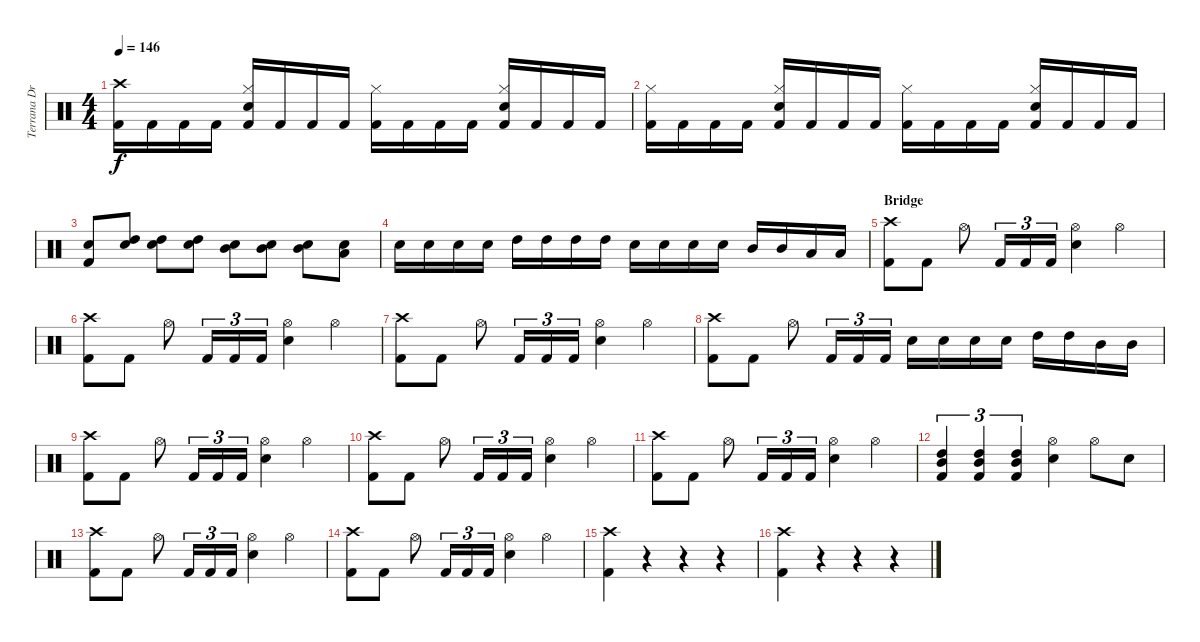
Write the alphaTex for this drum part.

\track ("Terrana Drums" "Terrana Dr") {instrument percussion}
\staff {score}
\articulation defaults
\ts (4 4)
\tempo 146
\clef neutral
\ks c
("Crash high (hit)" "Kick (hit) 2").16{dy f} "Kick (hit) 2".16 "Kick (hit) 2".16 "Kick (hit) 2".16 ("Hi-Hat (closed)" "Electric Snare (hit)" "Kick (hit) 2").16 "Kick (hit) 2".16 "Kick (hit) 2".16 "Kick (hit) 2".16 ("Hi-Hat (closed)" "Kick (hit) 2").16 "Kick (hit) 2".16 "Kick (hit) 2".16 "Kick (hit) 2".16 ("Hi-Hat (closed)" "Electric Snare (hit)" "Kick (hit) 2").16 "Kick (hit) 2".16 "Kick (hit) 2".16 "Kick (hit) 2".16 |
("Hi-Hat (closed)" "Kick (hit) 2").16 "Kick (hit) 2".16 "Kick (hit) 2".16 "Kick (hit) 2".16 ("Hi-Hat (closed)" "Electric Snare (hit)" "Kick (hit) 2").16 "Kick (hit) 2".16 "Kick (hit) 2".16 "Kick (hit) 2".16 ("Hi-Hat (closed)" "Kick (hit) 2").16 "Kick (hit) 2".16 "Kick (hit) 2".16 "Kick (hit) 2".16 ("Hi-Hat (closed)" "Electric Snare (hit)" "Kick (hit) 2").16 "Kick (hit) 2".16 "Kick (hit) 2".16 "Kick (hit) 2".16 |
("Electric Snare (hit)" "Kick (hit) 2").8 ("High Tom (hit)" "Electric Snare (hit)").8 ("High Tom (hit)" "Electric Snare (hit)").8 ("High Tom (hit)" "Electric Snare (hit)").8 ("Mid Tom (hit)" "Electric Snare (hit)").8 ("Mid Tom (hit)" "Electric Snare (hit)").8 ("Mid Tom (hit)" "Electric Snare (hit)").8 ("Low Tom (hit)" "Electric Snare (hit)").8 |
"Electric Snare (hit)".16 "Electric Snare (hit)".16 "Electric Snare (hit)".16 "Electric Snare (hit)".16 "High Tom (hit)".16 "High Tom (hit)".16 "High Tom (hit)".16 "High Tom (hit)".16 "Electric Snare (hit)".16 "Electric Snare (hit)".16 "Electric Snare (hit)".16 "Electric Snare (hit)".16 "Mid Tom (hit)".16 "Mid Tom (hit)".16 "Low Tom (hit)".16 "Low Tom (hit)".16 |
\section ("" "Bridge")
("Crash high (hit)" "Kick (hit) 2").8 "Kick (hit) 2".8 "Hi-Hat (open)".8 "Kick (hit) 2".16{tu (3 2)} "Kick (hit) 2".16{tu (3 2)} "Kick (hit) 2".16{tu (3 2)} ("Hi-Hat (open)" "Electric Snare (hit)").4 "Hi-Hat (open)".4 |
("Crash high (hit)" "Kick (hit) 2").8 "Kick (hit) 2".8 "Hi-Hat (open)".8 "Kick (hit) 2".16{tu (3 2)} "Kick (hit) 2".16{tu (3 2)} "Kick (hit) 2".16{tu (3 2)} ("Hi-Hat (open)" "Electric Snare (hit)").4 "Hi-Hat (open)".4 |
("Crash high (hit)" "Kick (hit) 2").8 "Kick (hit) 2".8 "Hi-Hat (open)".8 "Kick (hit) 2".16{tu (3 2)} "Kick (hit) 2".16{tu (3 2)} "Kick (hit) 2".16{tu (3 2)} ("Hi-Hat (open)" "Electric Snare (hit)").4 "Hi-Hat (open)".4 |
("Crash high (hit)" "Kick (hit) 2").8 "Kick (hit) 2".8 "Hi-Hat (open)".8 "Kick (hit) 2".16{tu (3 2)} "Kick (hit) 2".16{tu (3 2)} "Kick (hit) 2".16{tu (3 2)} "Electric Snare (hit)".16 "Electric Snare (hit)".16 "Electric Snare (hit)".16 "Electric Snare (hit)".16 "High Tom (hit)".16 "High Tom (hit)".16 "Mid Tom (hit)".16 "Mid Tom (hit)".16 |
("Crash high (hit)" "Kick (hit) 2").8 "Kick (hit) 2".8 "Hi-Hat (open)".8 "Kick (hit) 2".16{tu (3 2)} "Kick (hit) 2".16{tu (3 2)} "Kick (hit) 2".16{tu (3 2)} ("Hi-Hat (open)" "Electric Snare (hit)").4 "Hi-Hat (open)".4 |
("Crash high (hit)" "Kick (hit) 2").8 "Kick (hit) 2".8 "Hi-Hat (open)".8 "Kick (hit) 2".16{tu (3 2)} "Kick (hit) 2".16{tu (3 2)} "Kick (hit) 2".16{tu (3 2)} ("Hi-Hat (open)" "Electric Snare (hit)").4 "Hi-Hat (open)".4 |
("Crash high (hit)" "Kick (hit) 2").8 "Kick (hit) 2".8 "Hi-Hat (open)".8 "Kick (hit) 2".16{tu (3 2)} "Kick (hit) 2".16{tu (3 2)} "Kick (hit) 2".16{tu (3 2)} ("Hi-Hat (open)" "Electric Snare (hit)").4 "Hi-Hat (open)".4 |
("High Tom (hit)" "Mid Tom (hit)" "Kick (hit) 2").4{tu (3 2)} ("High Tom (hit)" "Mid Tom (hit)" "Kick (hit) 2").4{tu (3 2)} ("High Tom (hit)" "Mid Tom (hit)" "Kick (hit) 2").4{tu (3 2)} ("Hi-Hat (open)" "Electric Snare (hit)").4 "Hi-Hat (open)".8 "Electric Snare (hit)".8 |
("Crash high (hit)" "Kick (hit) 2").8 "Kick (hit) 2".8 "Hi-Hat (open)".8 "Kick (hit) 2".16{tu (3 2)} "Kick (hit) 2".16{tu (3 2)} "Kick (hit) 2".16{tu (3 2)} ("Hi-Hat (open)" "Electric Snare (hit)").4 "Hi-Hat (open)".4 |
("Crash high (hit)" "Kick (hit) 2").8 "Kick (hit) 2".8 "Hi-Hat (open)".8 "Kick (hit) 2".16{tu (3 2)} "Kick (hit) 2".16{tu (3 2)} "Kick (hit) 2".16{tu (3 2)} ("Hi-Hat (open)" "Electric Snare (hit)").4 "Hi-Hat (open)".4 |
("Crash high (hit)" "Kick (hit) 2").4 r.4 r.4 r.4 |
("Crash high (hit)" "Kick (hit) 2").4 r.4 r.4 r.4
